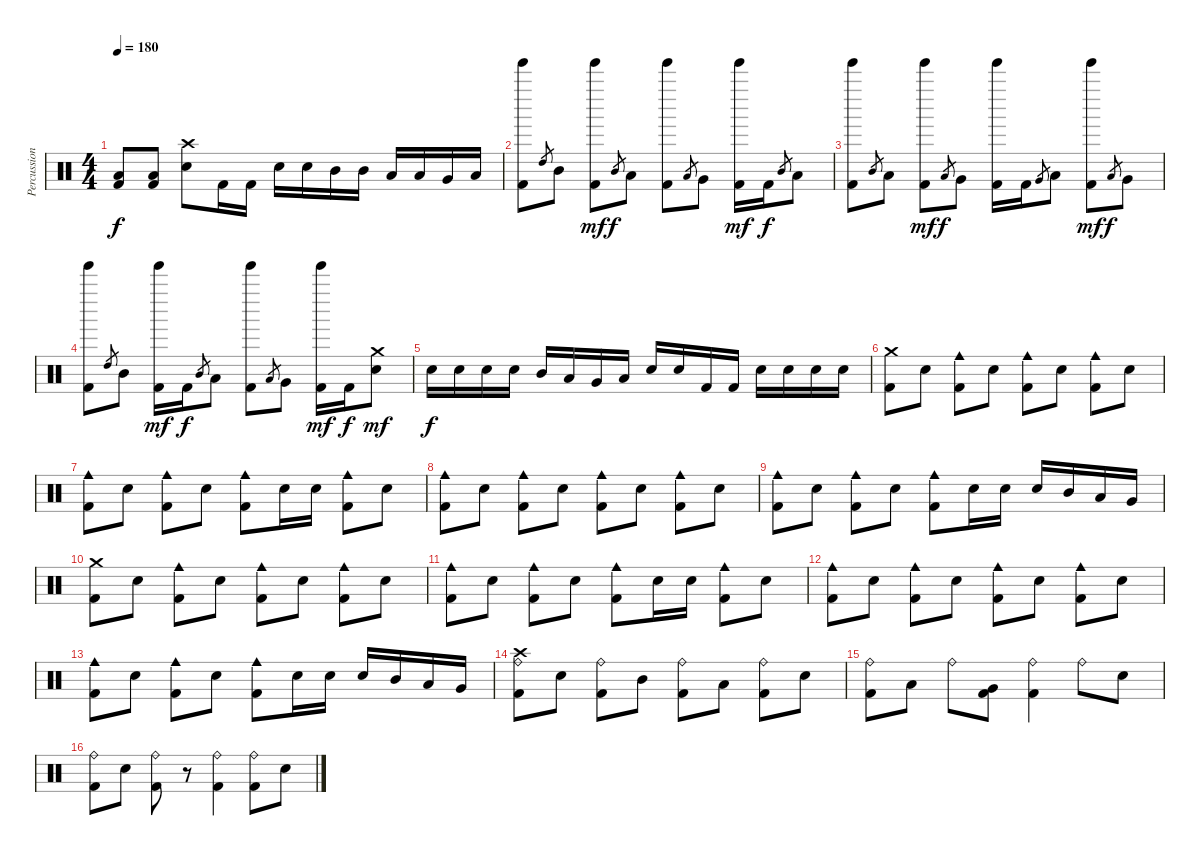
\track ("Percussion" "Percussion") {instrument percussion}
\staff {score}
\articulation defaults
\ts (4 4)
\tempo 180
\clef neutral
\ks c
("Low Floor Tom (hit)" "Kick (hit) 2").8{dy f} ("Low Floor Tom (hit)" "Kick (hit) 2").8 ("Crash high (hit)" "Snare (hit) 2").8 "Kick (hit) 2".16 "Kick (hit) 2".16 "Snare (hit) 2".16 "Snare (hit) 2".16 "Mid Tom (hit)".16 "Mid Tom (hit)".16 "Low Tom (hit)".16 "Low Tom (hit)".16 "Very Low Tom (hit)".16 "Low Floor Tom (hit)".16 |
("Tinkle Bell (hit)" "Kick (hit) 2").8 "High Tom (hit)".8{gr} "Mid Tom (hit)".8 ("Tinkle Bell (hit)" "Kick (hit) 2").8{dy mf} "Mid Tom (hit)".8{gr dy f} "Low Tom (hit)".8 ("Tinkle Bell (hit)" "Kick (hit) 2").8 "Low Tom (hit)".8{gr} "Very Low Tom (hit)".8 ("Tinkle Bell (hit)" "Kick (hit) 2").16{dy mf} "Kick (hit) 2".16{dy f} "Mid Tom (hit)".8{gr} "Low Tom (hit)".8 |
("Tinkle Bell (hit)" "Kick (hit) 2").8 "Mid Tom (hit)".8{gr} "Low Tom (hit)".8 ("Tinkle Bell (hit)" "Kick (hit) 2").8{dy mf} "Low Tom (hit)".8{gr dy f} "Very Low Tom (hit)".8 ("Tinkle Bell (hit)" "Kick (hit) 2").16 "Kick (hit) 2".16 "Very Low Tom (hit)".8{gr} "Low Floor Tom (hit)".8 ("Tinkle Bell (hit)" "Kick (hit) 2").8{dy mf} "Low Tom (hit)".8{gr dy f} "Very Low Tom (hit)".8 |
("Tinkle Bell (hit)" "Kick (hit) 2").8 "High Tom (hit)".8{gr} "Mid Tom (hit)".8 ("Tinkle Bell (hit)" "Kick (hit) 2").16{dy mf} "Kick (hit) 2".16{dy f} "Mid Tom (hit)".8{gr} "Low Tom (hit)".8 ("Tinkle Bell (hit)" "Kick (hit) 2").8 "Low Tom (hit)".8{gr} "Very Low Tom (hit)".8 ("Tinkle Bell (hit)" "Kick (hit) 2").16{dy mf} "Kick (hit) 2".16{dy f} ("Crash medium (hit)" "Snare (hit) 2").8{dy mf} |
"Snare (hit) 2".16{dy f} "Snare (hit) 2".16 "Snare (hit) 2".16 "Snare (hit) 2".16 "Mid Tom (hit)".16 "Low Tom (hit)".16 "Very Low Tom (hit)".16 "Low Floor Tom (hit)".16 "Snare (hit) 2".16 "Snare (hit) 2".16 "Kick (hit) 2".16 "Kick (hit) 2".16 "Snare (hit) 2".16 "Snare (hit) 2".16 "Snare (hit) 2".16 "Snare (hit) 2".16 |
("Crash medium (hit)" "Kick (hit) 2").8 "Snare (hit) 2".8 ("Cowbell medium (hit)" "Kick (hit) 2").8 "Snare (hit) 2".8 ("Cowbell medium (hit)" "Kick (hit) 2").8 "Snare (hit) 2".8 ("Cowbell medium (hit)" "Kick (hit) 2").8 "Snare (hit) 2".8 |
("Cowbell medium (hit)" "Kick (hit) 2").8 "Snare (hit) 2".8 ("Cowbell medium (hit)" "Kick (hit) 2").8 "Snare (hit) 2".8 ("Cowbell medium (hit)" "Kick (hit) 2").8 "Snare (hit) 2".16 "Snare (hit) 2".16 ("Cowbell medium (hit)" "Kick (hit) 2").8 "Snare (hit) 2".8 |
("Cowbell medium (hit)" "Kick (hit) 2").8 "Snare (hit) 2".8 ("Cowbell medium (hit)" "Kick (hit) 2").8 "Snare (hit) 2".8 ("Cowbell medium (hit)" "Kick (hit) 2").8 "Snare (hit) 2".8 ("Cowbell medium (hit)" "Kick (hit) 2").8 "Snare (hit) 2".8 |
("Cowbell medium (hit)" "Kick (hit) 2").8 "Snare (hit) 2".8 ("Cowbell medium (hit)" "Kick (hit) 2").8 "Snare (hit) 2".8 ("Cowbell medium (hit)" "Kick (hit) 2").8 "Snare (hit) 2".16 "Snare (hit) 2".16 "Snare (hit) 2".16 "Mid Tom (hit)".16 "Low Tom (hit)".16 "Very Low Tom (hit)".16 |
("Crash medium (hit)" "Kick (hit) 2").8 "Snare (hit) 2".8 ("Cowbell medium (hit)" "Kick (hit) 2").8 "Snare (hit) 2".8 ("Cowbell medium (hit)" "Kick (hit) 2").8 "Snare (hit) 2".8 ("Cowbell medium (hit)" "Kick (hit) 2").8 "Snare (hit) 2".8 |
("Cowbell medium (hit)" "Kick (hit) 2").8 "Snare (hit) 2".8 ("Cowbell medium (hit)" "Kick (hit) 2").8 "Snare (hit) 2".8 ("Cowbell medium (hit)" "Kick (hit) 2").8 "Snare (hit) 2".16 "Snare (hit) 2".16 ("Cowbell medium (hit)" "Kick (hit) 2").8 "Snare (hit) 2".8 |
("Cowbell medium (hit)" "Kick (hit) 2").8 "Snare (hit) 2".8 ("Cowbell medium (hit)" "Kick (hit) 2").8 "Snare (hit) 2".8 ("Cowbell medium (hit)" "Kick (hit) 2").8 "Snare (hit) 2".8 ("Cowbell medium (hit)" "Kick (hit) 2").8 "Snare (hit) 2".8 |
("Cowbell medium (hit)" "Kick (hit) 2").8 "Snare (hit) 2".8 ("Cowbell medium (hit)" "Kick (hit) 2").8 "Snare (hit) 2".8 ("Cowbell medium (hit)" "Kick (hit) 2").8 "Snare (hit) 2".16 "Snare (hit) 2".16 "Snare (hit) 2".16 "Mid Tom (hit)".16 "Low Tom (hit)".16 "Very Low Tom (hit)".16 |
("Crash high (hit)" "Ride (bell)" "Kick (hit) 2").8 "Snare (hit) 2".8 ("Ride (bell)" "Kick (hit) 2").8 "Mid Tom (hit)".8 ("Ride (bell)" "Kick (hit) 2").8 "Low Tom (hit)".8 ("Ride (bell)" "Kick (hit) 2").8 "Snare (hit) 2".8 |
("Ride (bell)" "Kick (hit) 2").8 "Low Tom (hit)".8 "Ride (bell)".8 ("Very Low Tom (hit)" "Kick (hit) 2").8 ("Ride (bell)" "Kick (hit) 2").4 "Ride (bell)".8 "Snare (hit) 2".8 |
("Ride (bell)" "Kick (hit) 2").8 "Snare (hit) 2".8 ("Ride (bell)" "Kick (hit) 2").8 r.8 ("Ride (bell)" "Kick (hit) 2").4 ("Ride (bell)" "Kick (hit) 2").8 "Snare (hit) 2".8
